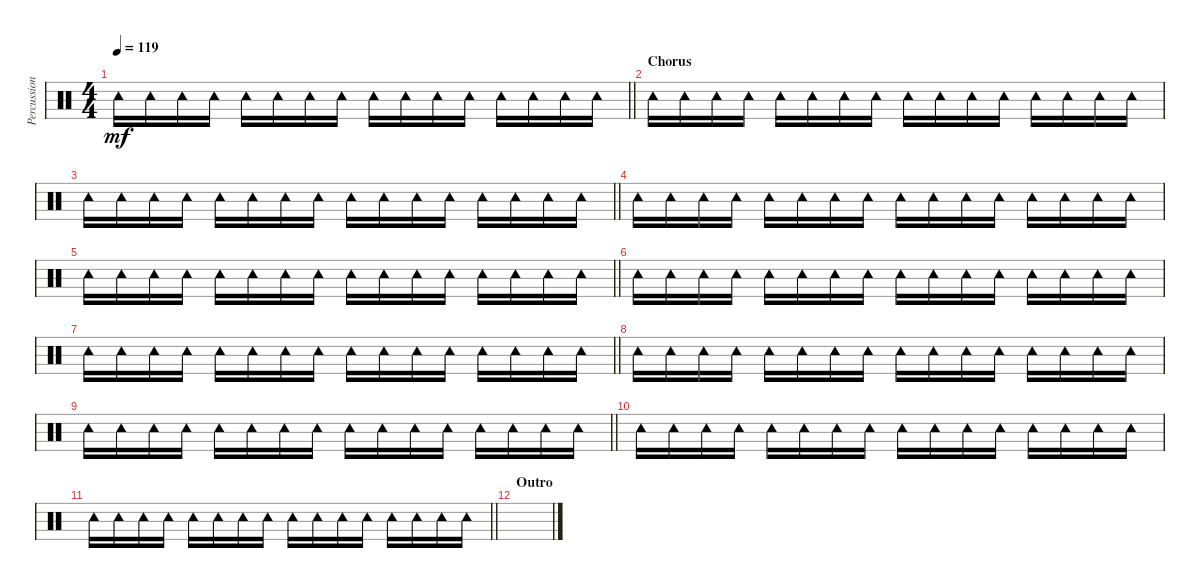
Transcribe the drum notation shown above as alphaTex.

\track ("Percussions" "Percussion") {instrument percussion}
\staff {score}
\articulation defaults
\ts (4 4)
\tempo 119
\clef neutral
\barLineRight lightlight
\ks c "Tambourine (hit)".16{dy mf} "Tambourine (hit)".16 "Tambourine (hit)".16 "Tambourine (hit)".16 "Tambourine (hit)".16 "Tambourine (hit)".16 "Tambourine (hit)".16 "Tambourine (hit)".16 "Tambourine (hit)".16 "Tambourine (hit)".16 "Tambourine (hit)".16 "Tambourine (hit)".16 "Tambourine (hit)".16 "Tambourine (hit)".16 "Tambourine (hit)".16 "Tambourine (hit)".16
|
\section ("" "Chorus")
"Tambourine (hit)".16 "Tambourine (hit)".16 "Tambourine (hit)".16 "Tambourine (hit)".16 "Tambourine (hit)".16 "Tambourine (hit)".16 "Tambourine (hit)".16 "Tambourine (hit)".16 "Tambourine (hit)".16 "Tambourine (hit)".16 "Tambourine (hit)".16 "Tambourine (hit)".16 "Tambourine (hit)".16 "Tambourine (hit)".16 "Tambourine (hit)".16 "Tambourine (hit)".16 |
\barLineRight lightlight "Tambourine (hit)".16 "Tambourine (hit)".16 "Tambourine (hit)".16 "Tambourine (hit)".16 "Tambourine (hit)".16 "Tambourine (hit)".16 "Tambourine (hit)".16 "Tambourine (hit)".16 "Tambourine (hit)".16 "Tambourine (hit)".16 "Tambourine (hit)".16 "Tambourine (hit)".16 "Tambourine (hit)".16 "Tambourine (hit)".16 "Tambourine (hit)".16 "Tambourine (hit)".16
|
"Tambourine (hit)".16 "Tambourine (hit)".16 "Tambourine (hit)".16 "Tambourine (hit)".16 "Tambourine (hit)".16 "Tambourine (hit)".16 "Tambourine (hit)".16 "Tambourine (hit)".16 "Tambourine (hit)".16 "Tambourine (hit)".16 "Tambourine (hit)".16 "Tambourine (hit)".16 "Tambourine (hit)".16 "Tambourine (hit)".16 "Tambourine (hit)".16 "Tambourine (hit)".16 |
\barLineRight lightlight "Tambourine (hit)".16 "Tambourine (hit)".16 "Tambourine (hit)".16 "Tambourine (hit)".16 "Tambourine (hit)".16 "Tambourine (hit)".16 "Tambourine (hit)".16 "Tambourine (hit)".16 "Tambourine (hit)".16 "Tambourine (hit)".16 "Tambourine (hit)".16 "Tambourine (hit)".16 "Tambourine (hit)".16 "Tambourine (hit)".16 "Tambourine (hit)".16 "Tambourine (hit)".16
|
"Tambourine (hit)".16 "Tambourine (hit)".16 "Tambourine (hit)".16 "Tambourine (hit)".16 "Tambourine (hit)".16 "Tambourine (hit)".16 "Tambourine (hit)".16 "Tambourine (hit)".16 "Tambourine (hit)".16 "Tambourine (hit)".16 "Tambourine (hit)".16 "Tambourine (hit)".16 "Tambourine (hit)".16 "Tambourine (hit)".16 "Tambourine (hit)".16 "Tambourine (hit)".16 |
\barLineRight lightlight "Tambourine (hit)".16 "Tambourine (hit)".16 "Tambourine (hit)".16 "Tambourine (hit)".16 "Tambourine (hit)".16 "Tambourine (hit)".16 "Tambourine (hit)".16 "Tambourine (hit)".16 "Tambourine (hit)".16 "Tambourine (hit)".16 "Tambourine (hit)".16 "Tambourine (hit)".16 "Tambourine (hit)".16 "Tambourine (hit)".16 "Tambourine (hit)".16 "Tambourine (hit)".16
|
"Tambourine (hit)".16 "Tambourine (hit)".16 "Tambourine (hit)".16 "Tambourine (hit)".16 "Tambourine (hit)".16 "Tambourine (hit)".16 "Tambourine (hit)".16 "Tambourine (hit)".16 "Tambourine (hit)".16 "Tambourine (hit)".16 "Tambourine (hit)".16 "Tambourine (hit)".16 "Tambourine (hit)".16 "Tambourine (hit)".16 "Tambourine (hit)".16 "Tambourine (hit)".16 |
\barLineRight lightlight "Tambourine (hit)".16 "Tambourine (hit)".16 "Tambourine (hit)".16 "Tambourine (hit)".16 "Tambourine (hit)".16 "Tambourine (hit)".16 "Tambourine (hit)".16 "Tambourine (hit)".16 "Tambourine (hit)".16 "Tambourine (hit)".16 "Tambourine (hit)".16 "Tambourine (hit)".16 "Tambourine (hit)".16 "Tambourine (hit)".16 "Tambourine (hit)".16 "Tambourine (hit)".16
|
"Tambourine (hit)".16 "Tambourine (hit)".16 "Tambourine (hit)".16 "Tambourine (hit)".16 "Tambourine (hit)".16 "Tambourine (hit)".16 "Tambourine (hit)".16 "Tambourine (hit)".16 "Tambourine (hit)".16 "Tambourine (hit)".16 "Tambourine (hit)".16 "Tambourine (hit)".16 "Tambourine (hit)".16 "Tambourine (hit)".16 "Tambourine (hit)".16 "Tambourine (hit)".16 |
\barLineRight lightlight "Tambourine (hit)".16 "Tambourine (hit)".16 "Tambourine (hit)".16 "Tambourine (hit)".16 "Tambourine (hit)".16 "Tambourine (hit)".16 "Tambourine (hit)".16 "Tambourine (hit)".16 "Tambourine (hit)".16 "Tambourine (hit)".16 "Tambourine (hit)".16 "Tambourine (hit)".16 "Tambourine (hit)".16 "Tambourine (hit)".16 "Tambourine (hit)".16 "Tambourine (hit)".16
|
\section ("" "Outro")
